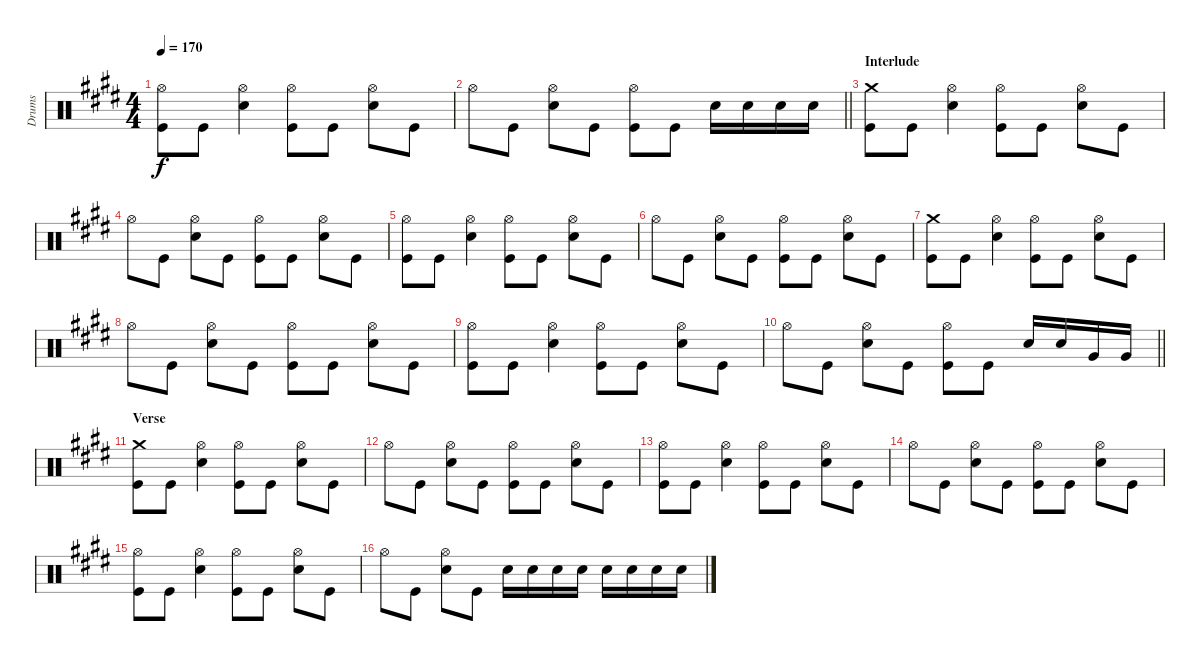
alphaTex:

\track ("Drums" "Drums") {instrument percussion}
\staff {score}
\articulation defaults
\ts (4 4)
\tempo 170
\clef neutral
\ks e
("Kick (hit)" "Hi-Hat (open)").8{dy f} "Kick (hit)".8 ("Snare (hit) 2" "Hi-Hat (open)").4 ("Kick (hit)" "Hi-Hat (open)").8 "Kick (hit)".8 ("Snare (hit) 2" "Hi-Hat (open)").8 "Kick (hit)".8 |
\barLineRight lightlight "Hi-Hat (open)".8 "Kick (hit)".8
("Snare (hit) 2" "Hi-Hat (open)").8 "Kick (hit)".8 ("Hi-Hat (open)" "Kick (hit)").8 "Kick (hit)".8 "Snare (hit) 2".16 "Snare (hit) 2".16 "Snare (hit) 2".16 "Snare (hit) 2".16 |
\section ("" "Interlude")
("Kick (hit)" "Crash medium (hit)").8 "Kick (hit)".8 ("Snare (hit) 2" "Hi-Hat (open)").4 ("Kick (hit)" "Hi-Hat (open)").8 "Kick (hit)".8 ("Snare (hit) 2" "Hi-Hat (open)").8 "Kick (hit)".8 |
"Hi-Hat (open)".8 "Kick (hit)".8 ("Snare (hit) 2" "Hi-Hat (open)").8 "Kick (hit)".8 ("Hi-Hat (open)" "Kick (hit)").8 "Kick (hit)".8 ("Snare (hit) 2" "Hi-Hat (open)").8 "Kick (hit)".8 |
("Kick (hit)" "Hi-Hat (open)").8 "Kick (hit)".8 ("Snare (hit) 2" "Hi-Hat (open)").4 ("Kick (hit)" "Hi-Hat (open)").8 "Kick (hit)".8 ("Snare (hit) 2" "Hi-Hat (open)").8 "Kick (hit)".8 |
"Hi-Hat (open)".8 "Kick (hit)".8 ("Snare (hit) 2" "Hi-Hat (open)").8 "Kick (hit)".8 ("Hi-Hat (open)" "Kick (hit)").8 "Kick (hit)".8 ("Snare (hit) 2" "Hi-Hat (open)").8 "Kick (hit)".8 |
("Kick (hit)" "Crash medium (hit)").8 "Kick (hit)".8 ("Snare (hit) 2" "Hi-Hat (open)").4 ("Kick (hit)" "Hi-Hat (open)").8 "Kick (hit)".8 ("Snare (hit) 2" "Hi-Hat (open)").8 "Kick (hit)".8 |
"Hi-Hat (open)".8 "Kick (hit)".8 ("Snare (hit) 2" "Hi-Hat (open)").8 "Kick (hit)".8 ("Hi-Hat (open)" "Kick (hit)").8 "Kick (hit)".8 ("Snare (hit) 2" "Hi-Hat (open)").8 "Kick (hit)".8 |
("Kick (hit)" "Hi-Hat (open)").8 "Kick (hit)".8 ("Snare (hit) 2" "Hi-Hat (open)").4 ("Kick (hit)" "Hi-Hat (open)").8 "Kick (hit)".8 ("Snare (hit) 2" "Hi-Hat (open)").8 "Kick (hit)".8 |
\barLineRight lightlight "Hi-Hat (open)".8 "Kick (hit)".8
("Snare (hit) 2" "Hi-Hat (open)").8 "Kick (hit)".8 ("Hi-Hat (open)" "Kick (hit)").8 "Kick (hit)".8 "Snare (hit) 2".16 "Snare (hit) 2".16 "Very Low Tom (hit)".16 "Very Low Tom (hit)".16 |
\section ("" "Verse")
("Kick (hit)" "Crash medium (hit)").8 "Kick (hit)".8 ("Snare (hit) 2" "Hi-Hat (open)").4 ("Kick (hit)" "Hi-Hat (open)").8 "Kick (hit)".8 ("Snare (hit) 2" "Hi-Hat (open)").8 "Kick (hit)".8 |
"Hi-Hat (open)".8 "Kick (hit)".8 ("Hi-Hat (open)" "Snare (hit) 2").8 "Kick (hit)".8 ("Kick (hit)" "Hi-Hat (open)").8 "Kick (hit)".8 ("Hi-Hat (open)" "Snare (hit) 2").8 "Kick (hit)".8 |
("Kick (hit)" "Hi-Hat (open)").8 "Kick (hit)".8 ("Snare (hit) 2" "Hi-Hat (open)").4 ("Kick (hit)" "Hi-Hat (open)").8 "Kick (hit)".8 ("Snare (hit) 2" "Hi-Hat (open)").8 "Kick (hit)".8 |
"Hi-Hat (open)".8 "Kick (hit)".8 ("Hi-Hat (open)" "Snare (hit) 2").8 "Kick (hit)".8 ("Kick (hit)" "Hi-Hat (open)").8 "Kick (hit)".8 ("Hi-Hat (open)" "Snare (hit) 2").8 "Kick (hit)".8 |
("Kick (hit)" "Hi-Hat (open)").8 "Kick (hit)".8 ("Snare (hit) 2" "Hi-Hat (open)").4 ("Kick (hit)" "Hi-Hat (open)").8 "Kick (hit)".8 ("Snare (hit) 2" "Hi-Hat (open)").8 "Kick (hit)".8 |
"Hi-Hat (open)".8 "Kick (hit)".8 ("Hi-Hat (open)" "Snare (hit) 2").8 "Kick (hit)".8 "Snare (hit) 2".16 "Snare (hit) 2".16 "Snare (hit) 2".16 "Snare (hit) 2".16 "Snare (hit) 2".16 "Snare (hit) 2".16 "Snare (hit) 2".16 "Snare (hit) 2".16
